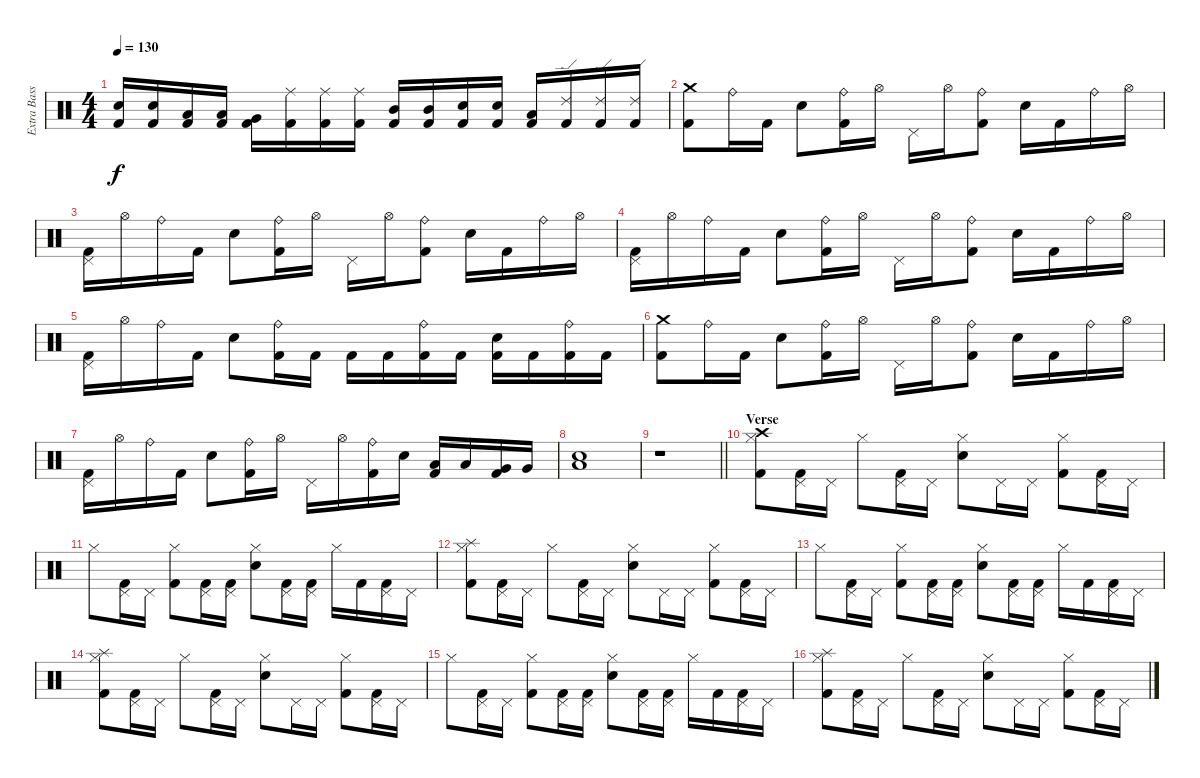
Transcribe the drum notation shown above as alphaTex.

\track ("Extra BassDrum" "Extra Bass") {instrument percussion}
\staff {score}
\articulation defaults
\ts (4 4)
\tempo 130
\clef neutral
\ks c
("Snare (hit) 2" "Kick (hit) 2").16{dy f} ("Snare (hit) 2" "Kick (hit) 2").16 ("Low Tom (hit)" "Kick (hit) 2").16 ("Low Tom (hit)" "Kick (hit) 2").16 ("Very Low Tom (hit)" "Kick (hit) 2").16 ("Ride (middle)" "Kick (hit) 2").16 ("Ride (middle)" "Kick (hit) 2").16 ("Ride (middle)" "Kick (hit) 2").16 ("Mid Tom (hit)" "Kick (hit) 2").16 ("Mid Tom (hit)" "Kick (hit) 2").16 ("Snare (hit) 2" "Kick (hit) 2").16 ("Snare (hit) 2" "Kick (hit) 2").16 ("Low Tom (hit)" "Kick (hit) 2").16 ("Ride (edge) 2" "Kick (hit) 2").16 ("Ride (edge) 2" "Kick (hit) 2").16 ("Ride (edge) 2" "Kick (hit) 2").16 |
("Crash medium (hit)" "Kick (hit) 2").8 "Ride (bell)".16 "Kick (hit) 2".16 "Snare (hit) 2".8 ("Ride (bell)" "Kick (hit) 2").16 "Hi-Hat (open)".16 "Pedal Hi-Hat (hit)".16 "Hi-Hat (open)".16 ("Ride (bell)" "Kick (hit) 2").8 "Snare (hit) 2".16 "Kick (hit) 2".16 "Ride (bell)".16 "Hi-Hat (open)".16 |
("Pedal Hi-Hat (hit)" "Kick (hit) 2").16 "Hi-Hat (open)".16 "Ride (bell)".16 "Kick (hit) 2".16 "Snare (hit) 2".8 ("Ride (bell)" "Kick (hit) 2").16 "Hi-Hat (open)".16 "Pedal Hi-Hat (hit)".16 "Hi-Hat (open)".16 ("Ride (bell)" "Kick (hit) 2").8 "Snare (hit) 2".16 "Kick (hit) 2".16 "Ride (bell)".16 "Hi-Hat (open)".16 |
("Pedal Hi-Hat (hit)" "Kick (hit) 2").16 "Hi-Hat (open)".16 "Ride (bell)".16 "Kick (hit) 2".16 "Snare (hit) 2".8 ("Ride (bell)" "Kick (hit) 2").16 "Hi-Hat (open)".16 "Pedal Hi-Hat (hit)".16 "Hi-Hat (open)".16 ("Ride (bell)" "Kick (hit) 2").8 "Snare (hit) 2".16 "Kick (hit) 2".16 "Ride (bell)".16 "Hi-Hat (open)".16 |
("Pedal Hi-Hat (hit)" "Kick (hit) 2").16 "Hi-Hat (open)".16 "Ride (bell)".16 "Kick (hit) 2".16 "Snare (hit) 2".8 ("Ride (bell)" "Kick (hit) 2").16 "Kick (hit) 2".16 "Kick (hit) 2".16 "Kick (hit) 2".16 ("Ride (bell)" "Kick (hit) 2").16 "Kick (hit) 2".16 ("Snare (hit) 2" "Kick (hit) 2").16 "Kick (hit) 2".16 ("Ride (bell)" "Kick (hit) 2").16 "Kick (hit) 2".16 |
("Crash medium (hit)" "Kick (hit) 2").8 "Ride (bell)".16 "Kick (hit) 2".16 "Snare (hit) 2".8 ("Ride (bell)" "Kick (hit) 2").16 "Hi-Hat (open)".16 "Pedal Hi-Hat (hit)".16 "Hi-Hat (open)".16 ("Ride (bell)" "Kick (hit) 2").8 "Snare (hit) 2".16 "Kick (hit) 2".16 "Ride (bell)".16 "Hi-Hat (open)".16 |
("Pedal Hi-Hat (hit)" "Kick (hit) 2").16 "Hi-Hat (open)".16 "Ride (bell)".16 "Kick (hit) 2".16 "Snare (hit) 2".8 ("Ride (bell)" "Kick (hit) 2").16 "Hi-Hat (open)".16 "Pedal Hi-Hat (hit)".16 "Hi-Hat (open)".16 ("Ride (bell)" "Kick (hit) 2").16 "Snare (hit) 2".16 ("Low Tom (hit)" "Kick (hit) 2").16 "Low Tom (hit)".16 ("Very Low Tom (hit)" "Kick (hit) 2").16 "Very Low Tom (hit)".16 |
("Low Floor Tom (hit)" "Snare (hit) 2").1 |
\barLineRight lightlight
r.1 |
\section ("" "Verse")
("Crash high (hit)" "Hi-Hat (closed)" "Kick (hit) 2").8 ("Pedal Hi-Hat (hit)" "Kick (hit) 2").16 "Pedal Hi-Hat (hit)".16 "Hi-Hat (closed)".8 ("Pedal Hi-Hat (hit)" "Kick (hit) 2").16 "Pedal Hi-Hat (hit)".16 ("Hi-Hat (closed)" "Snare (hit) 2").8 "Pedal Hi-Hat (hit)".16 "Pedal Hi-Hat (hit)".16 ("Hi-Hat (closed)" "Kick (hit) 2").8 ("Pedal Hi-Hat (hit)" "Kick (hit) 2").16 "Pedal Hi-Hat (hit)".16 |
"Hi-Hat (closed)".8 ("Pedal Hi-Hat (hit)" "Kick (hit) 2").16 "Pedal Hi-Hat (hit)".16 ("Hi-Hat (closed)" "Kick (hit) 2").8 ("Pedal Hi-Hat (hit)" "Kick (hit) 2").16 ("Pedal Hi-Hat (hit)" "Kick (hit) 2").16 ("Hi-Hat (closed)" "Snare (hit) 2").8 ("Pedal Hi-Hat (hit)" "Kick (hit) 2").16 ("Pedal Hi-Hat (hit)" "Kick (hit) 2").16 "Hi-Hat (closed)".16 "Kick (hit) 2".16 ("Pedal Hi-Hat (hit)" "Kick (hit) 2").16 "Pedal Hi-Hat (hit)".16 |
("Splash (hit)" "Hi-Hat (closed)" "Kick (hit) 2").8 ("Pedal Hi-Hat (hit)" "Kick (hit) 2").16 "Pedal Hi-Hat (hit)".16 "Hi-Hat (closed)".8 ("Pedal Hi-Hat (hit)" "Kick (hit) 2").16 "Pedal Hi-Hat (hit)".16 ("Hi-Hat (closed)" "Snare (hit) 2").8 "Pedal Hi-Hat (hit)".16 "Pedal Hi-Hat (hit)".16 ("Hi-Hat (closed)" "Kick (hit) 2").8 ("Pedal Hi-Hat (hit)" "Kick (hit) 2").16 "Pedal Hi-Hat (hit)".16 |
"Hi-Hat (closed)".8 ("Pedal Hi-Hat (hit)" "Kick (hit) 2").16 "Pedal Hi-Hat (hit)".16 ("Hi-Hat (closed)" "Kick (hit) 2").8 ("Pedal Hi-Hat (hit)" "Kick (hit) 2").16 ("Pedal Hi-Hat (hit)" "Kick (hit) 2").16 ("Hi-Hat (closed)" "Snare (hit) 2").8 ("Pedal Hi-Hat (hit)" "Kick (hit) 2").16 ("Pedal Hi-Hat (hit)" "Kick (hit) 2").16 "Hi-Hat (closed)".16 "Kick (hit) 2".16 ("Pedal Hi-Hat (hit)" "Kick (hit) 2").16 "Pedal Hi-Hat (hit)".16 |
("Splash (hit)" "Hi-Hat (closed)" "Kick (hit) 2").8 ("Pedal Hi-Hat (hit)" "Kick (hit) 2").16 "Pedal Hi-Hat (hit)".16 "Hi-Hat (closed)".8 ("Pedal Hi-Hat (hit)" "Kick (hit) 2").16 "Pedal Hi-Hat (hit)".16 ("Hi-Hat (closed)" "Snare (hit) 2").8 "Pedal Hi-Hat (hit)".16 "Pedal Hi-Hat (hit)".16 ("Hi-Hat (closed)" "Kick (hit) 2").8 ("Pedal Hi-Hat (hit)" "Kick (hit) 2").16 "Pedal Hi-Hat (hit)".16 |
"Hi-Hat (closed)".8 ("Pedal Hi-Hat (hit)" "Kick (hit) 2").16 "Pedal Hi-Hat (hit)".16 ("Hi-Hat (closed)" "Kick (hit) 2").8 ("Pedal Hi-Hat (hit)" "Kick (hit) 2").16 ("Pedal Hi-Hat (hit)" "Kick (hit) 2").16 ("Hi-Hat (closed)" "Snare (hit) 2").8 ("Pedal Hi-Hat (hit)" "Kick (hit) 2").16 ("Pedal Hi-Hat (hit)" "Kick (hit) 2").16 "Hi-Hat (closed)".16 "Kick (hit) 2".16 ("Pedal Hi-Hat (hit)" "Kick (hit) 2").16 "Pedal Hi-Hat (hit)".16 |
("Splash (hit)" "Hi-Hat (closed)" "Kick (hit) 2").8 ("Pedal Hi-Hat (hit)" "Kick (hit) 2").16 "Pedal Hi-Hat (hit)".16 "Hi-Hat (closed)".8 ("Pedal Hi-Hat (hit)" "Kick (hit) 2").16 "Pedal Hi-Hat (hit)".16 ("Hi-Hat (closed)" "Snare (hit) 2").8 "Pedal Hi-Hat (hit)".16 "Pedal Hi-Hat (hit)".16 ("Hi-Hat (closed)" "Kick (hit) 2").8 ("Pedal Hi-Hat (hit)" "Kick (hit) 2").16 "Pedal Hi-Hat (hit)".16
